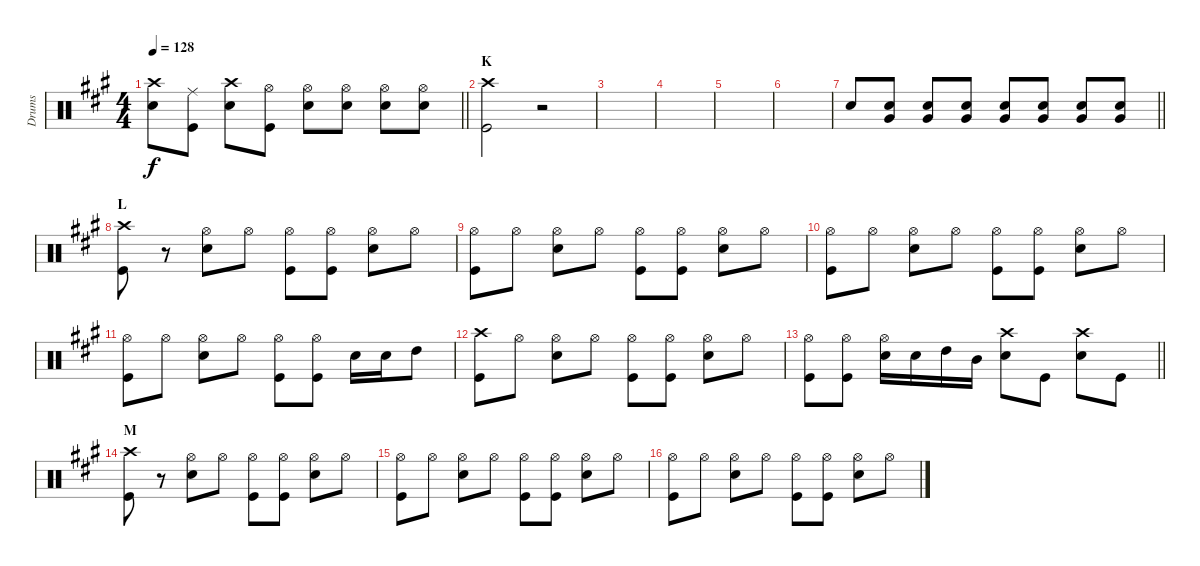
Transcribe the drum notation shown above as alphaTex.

\track ("Drums" "Drums") {instrument percussion}
\staff {score}
\articulation defaults
\ts (4 4)
\tempo 128
\clef neutral
\barLineRight lightlight
\ks a
("Crash high (hit)" "Snare (hit) 2").8{dy f} ("Ride (middle)" "Kick (hit)").8 ("Crash high (hit)" "Snare (hit) 2").8 ("Hi-Hat (open)" "Kick (hit)").8 ("Hi-Hat (open)" "Snare (hit) 2").8 ("Hi-Hat (open)" "Snare (hit) 2").8 ("Hi-Hat (open)" "Snare (hit) 2").8 ("Hi-Hat (open)" "Snare (hit) 2").8 |
\section ("" "K")
("Crash high (hit)" "Kick (hit)").2 r.2 |
|
|
|
|
\barLineRight lightlight "Snare (hit) 2".8
("Snare (hit) 2" "Very Low Tom (hit)").8 ("Snare (hit) 2" "Very Low Tom (hit)").8 ("Snare (hit) 2" "Very Low Tom (hit)").8 ("Snare (hit) 2" "Very Low Tom (hit)").8 ("Snare (hit) 2" "Very Low Tom (hit)").8 ("Snare (hit) 2" "Very Low Tom (hit)").8 ("Snare (hit) 2" "Very Low Tom (hit)").8 |
\section ("" "L")
("Crash high (hit)" "Kick (hit)").8 r.8 ("Hi-Hat (open)" "Snare (hit) 2").8 "Hi-Hat (open)".8 ("Hi-Hat (open)" "Kick (hit)").8 ("Hi-Hat (open)" "Kick (hit)").8 ("Hi-Hat (open)" "Snare (hit) 2").8 "Hi-Hat (open)".8 |
("Hi-Hat (open)" "Kick (hit)").8 "Hi-Hat (open)".8 ("Hi-Hat (open)" "Snare (hit) 2").8 "Hi-Hat (open)".8 ("Hi-Hat (open)" "Kick (hit)").8 ("Hi-Hat (open)" "Kick (hit)").8 ("Hi-Hat (open)" "Snare (hit) 2").8 "Hi-Hat (open)".8 |
("Hi-Hat (open)" "Kick (hit)").8 "Hi-Hat (open)".8 ("Hi-Hat (open)" "Snare (hit) 2").8 "Hi-Hat (open)".8 ("Hi-Hat (open)" "Kick (hit)").8 ("Hi-Hat (open)" "Kick (hit)").8 ("Hi-Hat (open)" "Snare (hit) 2").8 "Hi-Hat (open)".8 |
("Hi-Hat (open)" "Kick (hit)").8 "Hi-Hat (open)".8 ("Hi-Hat (open)" "Snare (hit) 2").8 "Hi-Hat (open)".8 ("Hi-Hat (open)" "Kick (hit)").8 ("Hi-Hat (open)" "Kick (hit)").8 "Snare (hit) 2".16 "Snare (hit) 2".16 "High Tom (hit)".8 |
("Crash high (hit)" "Kick (hit)").8 "Hi-Hat (open)".8 ("Hi-Hat (open)" "Snare (hit) 2").8 "Hi-Hat (open)".8 ("Hi-Hat (open)" "Kick (hit)").8 ("Hi-Hat (open)" "Kick (hit)").8 ("Hi-Hat (open)" "Snare (hit) 2").8 "Hi-Hat (open)".8 |
\barLineRight lightlight
("Hi-Hat (open)" "Kick (hit)").8 ("Hi-Hat (open)" "Kick (hit)").8 ("Hi-Hat (open)" "Snare (hit) 2").16 "Snare (hit) 2".16 "High Tom (hit)".16 "Mid Tom (hit)".16 ("Crash high (hit)" "Snare (hit) 2").8 "Kick (hit)".8 ("Crash high (hit)" "Snare (hit) 2").8 "Kick (hit)".8 |
\section ("" "M")
("Crash high (hit)" "Kick (hit)").8 r.8 ("Hi-Hat (open)" "Snare (hit) 2").8 "Hi-Hat (open)".8 ("Hi-Hat (open)" "Kick (hit)").8 ("Hi-Hat (open)" "Kick (hit)").8 ("Hi-Hat (open)" "Snare (hit) 2").8 "Hi-Hat (open)".8 |
("Hi-Hat (open)" "Kick (hit)").8 "Hi-Hat (open)".8 ("Hi-Hat (open)" "Snare (hit) 2").8 "Hi-Hat (open)".8 ("Hi-Hat (open)" "Kick (hit)").8 ("Hi-Hat (open)" "Kick (hit)").8 ("Hi-Hat (open)" "Snare (hit) 2").8 "Hi-Hat (open)".8 |
("Hi-Hat (open)" "Kick (hit)").8 "Hi-Hat (open)".8 ("Hi-Hat (open)" "Snare (hit) 2").8 "Hi-Hat (open)".8 ("Hi-Hat (open)" "Kick (hit)").8 ("Hi-Hat (open)" "Kick (hit)").8 ("Hi-Hat (open)" "Snare (hit) 2").8 "Hi-Hat (open)".8
